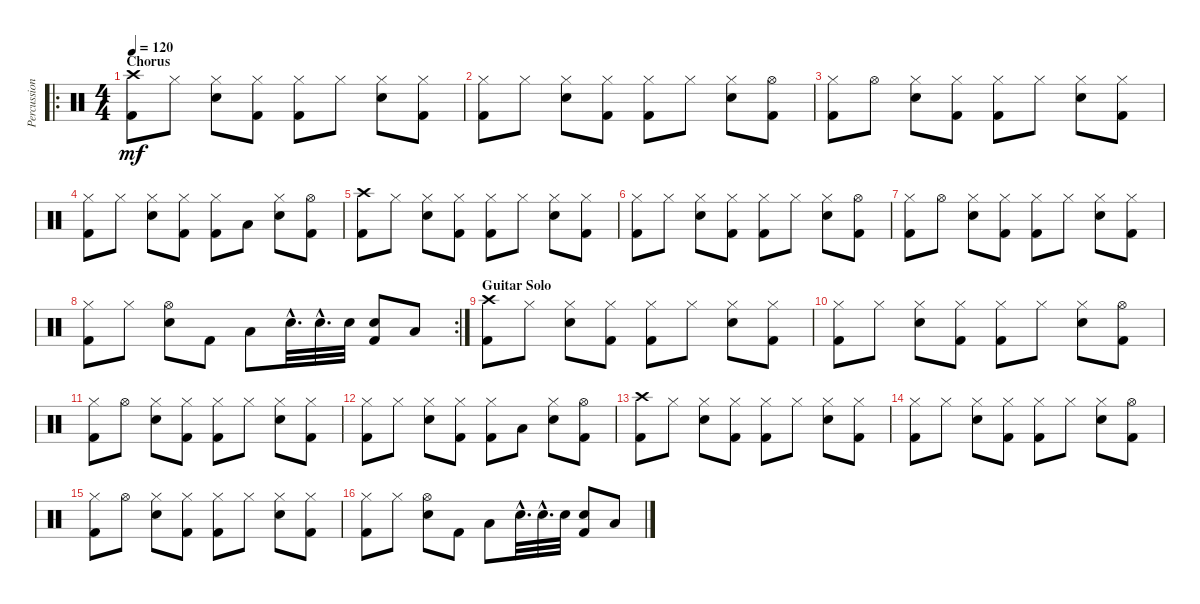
\track ("Percussion" "Percussion") {instrument percussion}
\staff {score}
\articulation defaults
\ro
\ts (4 4)
\section ("" "Chorus")
\tempo 120
\clef neutral
\ks c
("Kick (hit) 2" "Crash high (hit)").8{dy mf} "Hi-Hat (closed)".8 ("Hi-Hat (closed)" "Snare (hit) 2").8 ("Hi-Hat (closed)" "Kick (hit) 2").8 ("Kick (hit) 2" "Hi-Hat (closed)").8 "Hi-Hat (closed)".8 ("Snare (hit) 2" "Hi-Hat (closed)").8 ("Kick (hit) 2" "Hi-Hat (closed)").8 |
("Kick (hit) 2" "Hi-Hat (closed)").8 "Hi-Hat (closed)".8 ("Hi-Hat (closed)" "Snare (hit) 2").8 ("Hi-Hat (closed)" "Kick (hit) 2").8 ("Kick (hit) 2" "Hi-Hat (closed)").8 "Hi-Hat (closed)".8 ("Snare (hit) 2" "Hi-Hat (closed)").8 ("Hi-Hat (open)" "Kick (hit) 2").8 |
("Kick (hit) 2" "Hi-Hat (closed)").8 "Hi-Hat (open)".8 ("Hi-Hat (closed)" "Snare (hit) 2").8 ("Hi-Hat (closed)" "Kick (hit) 2").8 ("Kick (hit) 2" "Hi-Hat (closed)").8 "Hi-Hat (closed)".8 ("Snare (hit) 2" "Hi-Hat (closed)").8 ("Kick (hit) 2" "Hi-Hat (closed)").8 |
("Kick (hit) 2" "Hi-Hat (closed)").8 "Hi-Hat (closed)".8 ("Hi-Hat (closed)" "Snare (hit) 2").8 ("Hi-Hat (closed)" "Kick (hit) 2").8 ("Kick (hit) 2" "Hi-Hat (closed)").8 "Low Floor Tom (hit)".8 ("Snare (hit) 2" "Hi-Hat (closed)").8 ("Hi-Hat (open)" "Kick (hit) 2").8 |
("Kick (hit) 2" "Crash high (hit)").8 "Hi-Hat (closed)".8 ("Hi-Hat (closed)" "Snare (hit) 2").8 ("Hi-Hat (closed)" "Kick (hit) 2").8 ("Kick (hit) 2" "Hi-Hat (closed)").8 "Hi-Hat (closed)".8 ("Snare (hit) 2" "Hi-Hat (closed)").8 ("Kick (hit) 2" "Hi-Hat (closed)").8 |
("Kick (hit) 2" "Hi-Hat (closed)").8 "Hi-Hat (closed)".8 ("Hi-Hat (closed)" "Snare (hit) 2").8 ("Hi-Hat (closed)" "Kick (hit) 2").8 ("Kick (hit) 2" "Hi-Hat (closed)").8 "Hi-Hat (closed)".8 ("Snare (hit) 2" "Hi-Hat (closed)").8 ("Hi-Hat (open)" "Kick (hit) 2").8 |
("Kick (hit) 2" "Hi-Hat (closed)").8 "Hi-Hat (open)".8 ("Hi-Hat (closed)" "Snare (hit) 2").8 ("Hi-Hat (closed)" "Kick (hit) 2").8 ("Kick (hit) 2" "Hi-Hat (closed)").8 "Hi-Hat (closed)".8 ("Snare (hit) 2" "Hi-Hat (closed)").8 ("Kick (hit) 2" "Hi-Hat (closed)").8 |
\rc 2
("Kick (hit) 2" "Hi-Hat (closed)").8 "Hi-Hat (closed)".8 ("Hi-Hat (open)" "Snare (hit) 2").8 "Kick (hit) 2".8 "Low Tom (hit)".8 "Snare (hit) 2"{hac}.32{d} "Snare (hit) 2"{hac}.32{d} "Snare (hit) 2".32 ("Snare (hit) 2" "Kick (hit) 2").8 "Low Floor Tom (hit)".8 |
\section ("" "Guitar Solo")
("Kick (hit) 2" "Crash high (hit)").8 "Hi-Hat (closed)".8 ("Hi-Hat (closed)" "Snare (hit) 2").8 ("Hi-Hat (closed)" "Kick (hit) 2").8 ("Kick (hit) 2" "Hi-Hat (closed)").8 "Hi-Hat (closed)".8 ("Snare (hit) 2" "Hi-Hat (closed)").8 ("Kick (hit) 2" "Hi-Hat (closed)").8 |
("Kick (hit) 2" "Hi-Hat (closed)").8 "Hi-Hat (closed)".8 ("Hi-Hat (closed)" "Snare (hit) 2").8 ("Hi-Hat (closed)" "Kick (hit) 2").8 ("Kick (hit) 2" "Hi-Hat (closed)").8 "Hi-Hat (closed)".8 ("Snare (hit) 2" "Hi-Hat (closed)").8 ("Hi-Hat (open)" "Kick (hit) 2").8 |
("Kick (hit) 2" "Hi-Hat (closed)").8 "Hi-Hat (open)".8 ("Hi-Hat (closed)" "Snare (hit) 2").8 ("Hi-Hat (closed)" "Kick (hit) 2").8 ("Kick (hit) 2" "Hi-Hat (closed)").8 "Hi-Hat (closed)".8 ("Snare (hit) 2" "Hi-Hat (closed)").8 ("Kick (hit) 2" "Hi-Hat (closed)").8 |
("Kick (hit) 2" "Hi-Hat (closed)").8 "Hi-Hat (closed)".8 ("Hi-Hat (closed)" "Snare (hit) 2").8 ("Hi-Hat (closed)" "Kick (hit) 2").8 ("Kick (hit) 2" "Hi-Hat (closed)").8 "Low Floor Tom (hit)".8 ("Snare (hit) 2" "Hi-Hat (closed)").8 ("Hi-Hat (open)" "Kick (hit) 2").8 |
("Kick (hit) 2" "Crash high (hit)").8 "Hi-Hat (closed)".8 ("Hi-Hat (closed)" "Snare (hit) 2").8 ("Hi-Hat (closed)" "Kick (hit) 2").8 ("Kick (hit) 2" "Hi-Hat (closed)").8 "Hi-Hat (closed)".8 ("Snare (hit) 2" "Hi-Hat (closed)").8 ("Kick (hit) 2" "Hi-Hat (closed)").8 |
("Kick (hit) 2" "Hi-Hat (closed)").8 "Hi-Hat (closed)".8 ("Hi-Hat (closed)" "Snare (hit) 2").8 ("Hi-Hat (closed)" "Kick (hit) 2").8 ("Kick (hit) 2" "Hi-Hat (closed)").8 "Hi-Hat (closed)".8 ("Snare (hit) 2" "Hi-Hat (closed)").8 ("Hi-Hat (open)" "Kick (hit) 2").8 |
("Kick (hit) 2" "Hi-Hat (closed)").8 "Hi-Hat (open)".8 ("Hi-Hat (closed)" "Snare (hit) 2").8 ("Hi-Hat (closed)" "Kick (hit) 2").8 ("Kick (hit) 2" "Hi-Hat (closed)").8 "Hi-Hat (closed)".8 ("Snare (hit) 2" "Hi-Hat (closed)").8 ("Kick (hit) 2" "Hi-Hat (closed)").8 |
("Kick (hit) 2" "Hi-Hat (closed)").8 "Hi-Hat (closed)".8 ("Hi-Hat (open)" "Snare (hit) 2").8 "Kick (hit) 2".8 "Low Tom (hit)".8 "Snare (hit) 2"{hac}.32{d} "Snare (hit) 2"{hac}.32{d} "Snare (hit) 2".32 ("Snare (hit) 2" "Kick (hit) 2").8 "Low Floor Tom (hit)".8
